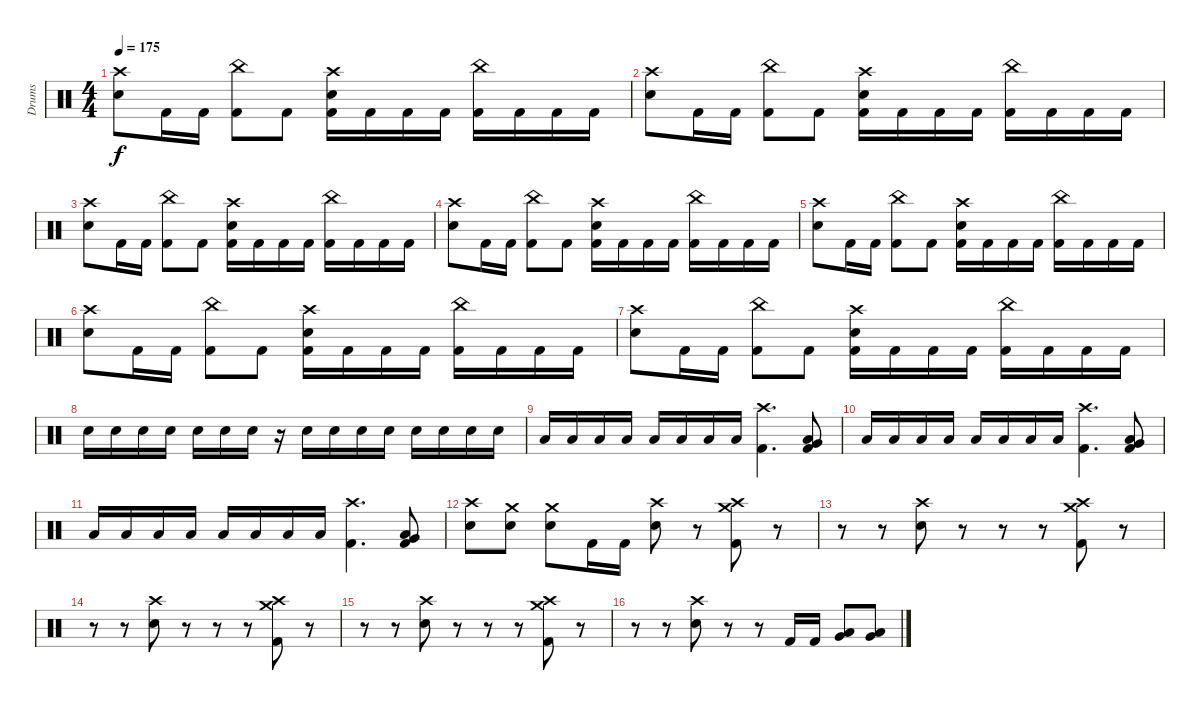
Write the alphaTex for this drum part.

\track ("Drums" "Drums") {instrument percussion}
\staff {score}
\articulation defaults
\ts (4 4)
\tempo 175
\clef neutral
\ks c
("Crash high (hit)" "Snare (hit) 2").8{dy f} "Kick (hit) 2".16 "Kick (hit) 2".16 ("China (hit)" "Kick (hit) 2").8 "Kick (hit) 2".8 ("Crash high (hit)" "Snare (hit) 2" "Kick (hit) 2").16 "Kick (hit) 2".16 "Kick (hit) 2".16 "Kick (hit) 2".16 ("China (hit)" "Kick (hit) 2").16 "Kick (hit) 2".16 "Kick (hit) 2".16 "Kick (hit) 2".16 |
("Crash high (hit)" "Snare (hit) 2").8 "Kick (hit) 2".16 "Kick (hit) 2".16 ("China (hit)" "Kick (hit) 2").8 "Kick (hit) 2".8 ("Crash high (hit)" "Snare (hit) 2" "Kick (hit) 2").16 "Kick (hit) 2".16 "Kick (hit) 2".16 "Kick (hit) 2".16 ("China (hit)" "Kick (hit) 2").16 "Kick (hit) 2".16 "Kick (hit) 2".16 "Kick (hit) 2".16 |
("Crash high (hit)" "Snare (hit) 2").8 "Kick (hit) 2".16 "Kick (hit) 2".16 ("China (hit)" "Kick (hit) 2").8 "Kick (hit) 2".8 ("Crash high (hit)" "Snare (hit) 2" "Kick (hit) 2").16 "Kick (hit) 2".16 "Kick (hit) 2".16 "Kick (hit) 2".16 ("China (hit)" "Kick (hit) 2").16 "Kick (hit) 2".16 "Kick (hit) 2".16 "Kick (hit) 2".16 |
("Crash high (hit)" "Snare (hit) 2").8 "Kick (hit) 2".16 "Kick (hit) 2".16 ("China (hit)" "Kick (hit) 2").8 "Kick (hit) 2".8 ("Crash high (hit)" "Snare (hit) 2" "Kick (hit) 2").16 "Kick (hit) 2".16 "Kick (hit) 2".16 "Kick (hit) 2".16 ("China (hit)" "Kick (hit) 2").16 "Kick (hit) 2".16 "Kick (hit) 2".16 "Kick (hit) 2".16 |
("Crash high (hit)" "Snare (hit) 2").8 "Kick (hit) 2".16 "Kick (hit) 2".16 ("China (hit)" "Kick (hit) 2").8 "Kick (hit) 2".8 ("Crash high (hit)" "Snare (hit) 2" "Kick (hit) 2").16 "Kick (hit) 2".16 "Kick (hit) 2".16 "Kick (hit) 2".16 ("China (hit)" "Kick (hit) 2").16 "Kick (hit) 2".16 "Kick (hit) 2".16 "Kick (hit) 2".16 |
("Crash high (hit)" "Snare (hit) 2").8 "Kick (hit) 2".16 "Kick (hit) 2".16 ("China (hit)" "Kick (hit) 2").8 "Kick (hit) 2".8 ("Crash high (hit)" "Snare (hit) 2" "Kick (hit) 2").16 "Kick (hit) 2".16 "Kick (hit) 2".16 "Kick (hit) 2".16 ("China (hit)" "Kick (hit) 2").16 "Kick (hit) 2".16 "Kick (hit) 2".16 "Kick (hit) 2".16 |
("Crash high (hit)" "Snare (hit) 2").8 "Kick (hit) 2".16 "Kick (hit) 2".16 ("China (hit)" "Kick (hit) 2").8 "Kick (hit) 2".8 ("Crash high (hit)" "Snare (hit) 2" "Kick (hit) 2").16 "Kick (hit) 2".16 "Kick (hit) 2".16 "Kick (hit) 2".16 ("China (hit)" "Kick (hit) 2").16 "Kick (hit) 2".16 "Kick (hit) 2".16 "Kick (hit) 2".16 |
"Snare (hit) 2".16 "Snare (hit) 2".16 "Snare (hit) 2".16 "Snare (hit) 2".16 "Snare (hit) 2".16 "Snare (hit) 2".16 "Snare (hit) 2".16 r.16 "Snare (hit) 2".16 "Snare (hit) 2".16 "Snare (hit) 2".16 "Snare (hit) 2".16 "Snare (hit) 2".16 "Snare (hit) 2".16 "Snare (hit) 2".16 "Snare (hit) 2".16 |
"Low Tom (hit)".16 "Low Tom (hit)".16 "Low Tom (hit)".16 "Low Tom (hit)".16 "Low Tom (hit)".16 "Low Tom (hit)".16 "Low Tom (hit)".16 "Low Tom (hit)".16 ("Crash high (hit)" "Kick (hit) 2").4{d} ("Low Tom (hit)" "Very Low Tom (hit)" "Kick (hit) 2").8 |
"Low Tom (hit)".16 "Low Tom (hit)".16 "Low Tom (hit)".16 "Low Tom (hit)".16 "Low Tom (hit)".16 "Low Tom (hit)".16 "Low Tom (hit)".16 "Low Tom (hit)".16 ("Crash high (hit)" "Kick (hit) 2").4{d} ("Low Tom (hit)" "Very Low Tom (hit)" "Kick (hit) 2").8 |
"Low Tom (hit)".16 "Low Tom (hit)".16 "Low Tom (hit)".16 "Low Tom (hit)".16 "Low Tom (hit)".16 "Low Tom (hit)".16 "Low Tom (hit)".16 "Low Tom (hit)".16 ("Crash high (hit)" "Kick (hit) 2").4{d} ("Low Tom (hit)" "Very Low Tom (hit)" "Kick (hit) 2").8 |
("Crash high (hit)" "Snare (hit) 2").8 ("Crash medium (hit)" "Snare (hit) 2").8 ("Crash medium (hit)" "Snare (hit) 2").8 "Kick (hit) 2".16 "Kick (hit) 2".16 ("Crash high (hit)" "Snare (hit) 2").8 r.8 ("Crash medium (hit)" "Crash high (hit)" "Kick (hit) 2").8 r.8 |
r.8 r.8 ("Crash high (hit)" "Snare (hit) 2").8 r.8 r.8 r.8 ("Crash medium (hit)" "Crash high (hit)" "Kick (hit) 2").8 r.8 |
r.8 r.8 ("Crash high (hit)" "Snare (hit) 2").8 r.8 r.8 r.8 ("Crash medium (hit)" "Crash high (hit)" "Kick (hit) 2").8 r.8 |
r.8 r.8 ("Crash high (hit)" "Snare (hit) 2").8 r.8 r.8 r.8 ("Crash medium (hit)" "Crash high (hit)" "Kick (hit) 2").8 r.8 |
r.8 r.8 ("Crash high (hit)" "Snare (hit) 2").8 r.8 r.8 "Kick (hit) 2".16 "Kick (hit) 2".16 ("Low Tom (hit)" "Very Low Tom (hit)").8 ("Low Tom (hit)" "Very Low Tom (hit)").8
